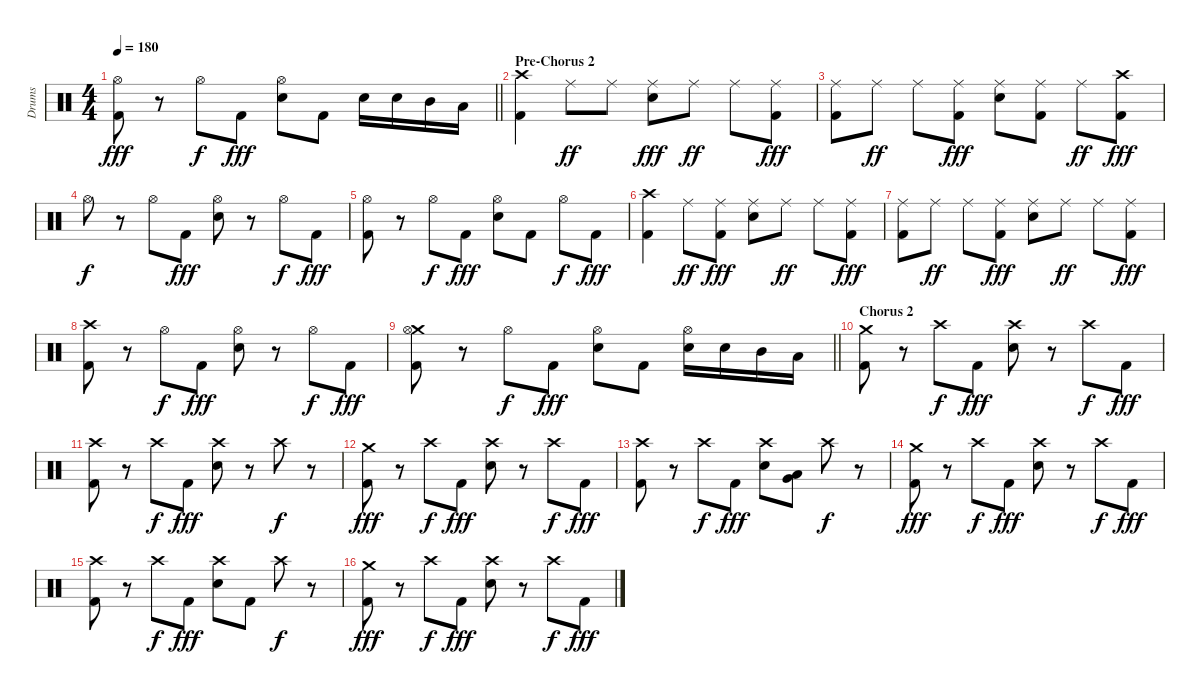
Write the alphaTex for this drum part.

\track ("Drums" "Drums") {instrument percussion}
\staff {score}
\articulation defaults
\ts (4 4)
\tempo 180
\clef neutral
\barLineRight lightlight
\ks c
("Hi-Hat (open)" "Kick (hit) 2").8{dy fff} r.8 "Hi-Hat (open)".8{dy f} "Kick (hit) 2".8{dy fff} ("Hi-Hat (open)" "Electric Snare (hit)").8 "Kick (hit) 2".8 "Electric Snare (hit)".16 "Electric Snare (hit)".16 "Mid Tom (hit)".16 "Low Tom (hit)".16 |
\section ("" "Pre-Chorus 2")
("Crash high (hit)" "Kick (hit) 2").4 "Ride (middle)".8{dy ff} "Ride (middle)".8 ("Ride (middle)" "Electric Snare (hit)").8{dy fff} "Ride (middle)".8{dy ff} "Ride (middle)".8 ("Ride (middle)" "Kick (hit) 2").8{dy fff} |
("Ride (middle)" "Kick (hit) 2").8 "Ride (middle)".8{dy ff} "Ride (middle)".8 ("Ride (middle)" "Kick (hit) 2").8{dy fff} ("Ride (middle)" "Electric Snare (hit)").8 ("Ride (middle)" "Kick (hit) 2").8 "Ride (middle)".8{dy ff} ("Crash high (hit)" "Kick (hit) 2").8{dy fff} |
"Hi-Hat (open)".8{dy f} r.8 "Hi-Hat (open)".8 "Kick (hit) 2".8{dy fff} ("Hi-Hat (open)" "Electric Snare (hit)").8 r.8 "Hi-Hat (open)".8{dy f} "Kick (hit) 2".8{dy fff} |
("Hi-Hat (open)" "Kick (hit) 2").8 r.8 "Hi-Hat (open)".8{dy f} "Kick (hit) 2".8{dy fff} ("Hi-Hat (open)" "Electric Snare (hit)").8 "Kick (hit) 2".8 "Hi-Hat (open)".8{dy f} "Kick (hit) 2".8{dy fff} |
("Crash high (hit)" "Kick (hit) 2").4 "Ride (middle)".8{dy ff} ("Ride (middle)" "Kick (hit) 2").8{dy fff} ("Ride (middle)" "Electric Snare (hit)").8 "Ride (middle)".8{dy ff} "Ride (middle)".8 ("Ride (middle)" "Kick (hit) 2").8{dy fff} |
("Ride (middle)" "Kick (hit) 2").8 "Ride (middle)".8{dy ff} "Ride (middle)".8 ("Ride (middle)" "Kick (hit) 2").8{dy fff} ("Ride (middle)" "Electric Snare (hit)").8 "Ride (middle)".8{dy ff} "Ride (middle)".8 ("Ride (middle)" "Kick (hit) 2").8{dy fff} |
("Crash high (hit)" "Kick (hit) 2").8 r.8 "Hi-Hat (open)".8{dy f} "Kick (hit) 2".8{dy fff} ("Hi-Hat (open)" "Electric Snare (hit)").8 r.8 "Hi-Hat (open)".8{dy f} "Kick (hit) 2".8{dy fff} |
\barLineRight lightlight
("Crash medium (hit)" "Hi-Hat (open)" "Kick (hit) 2").8 r.8 "Hi-Hat (open)".8{dy f} "Kick (hit) 2".8{dy fff} ("Hi-Hat (open)" "Electric Snare (hit)").8 "Kick (hit) 2".8 ("Hi-Hat (open)" "Electric Snare (hit)").16 "Electric Snare (hit)".16 "Mid Tom (hit)".16 "Low Tom (hit)".16 |
\section ("" "Chorus 2")
("Crash medium (hit)" "Kick (hit) 2").8 r.8 "Crash high (hit)".8{dy f} "Kick (hit) 2".8{dy fff} ("Crash high (hit)" "Electric Snare (hit)").8 r.8 "Crash high (hit)".8{dy f} "Kick (hit) 2".8{dy fff} |
("Crash high (hit)" "Kick (hit) 2").8 r.8 "Crash high (hit)".8{dy f} "Kick (hit) 2".8{dy fff} ("Crash high (hit)" "Electric Snare (hit)").8 r.8 "Crash high (hit)".8{dy f} r.8 |
("Crash medium (hit)" "Kick (hit) 2").8{dy fff} r.8 "Crash high (hit)".8{dy f} "Kick (hit) 2".8{dy fff} ("Crash high (hit)" "Electric Snare (hit)").8 r.8 "Crash high (hit)".8{dy f} "Kick (hit) 2".8{dy fff} |
("Crash high (hit)" "Kick (hit) 2").8 r.8 "Crash high (hit)".8{dy f} "Kick (hit) 2".8{dy fff} ("Crash high (hit)" "Electric Snare (hit)").8 ("Low Tom (hit)" "Very Low Tom (hit)").8 "Crash high (hit)".8{dy f} r.8 |
("Crash medium (hit)" "Kick (hit) 2").8{dy fff} r.8 "Crash high (hit)".8{dy f} "Kick (hit) 2".8{dy fff} ("Crash high (hit)" "Electric Snare (hit)").8 r.8 "Crash high (hit)".8{dy f} "Kick (hit) 2".8{dy fff} |
("Crash high (hit)" "Kick (hit) 2").8 r.8 "Crash high (hit)".8{dy f} "Kick (hit) 2".8{dy fff} ("Crash high (hit)" "Electric Snare (hit)").8 "Kick (hit) 2".8 "Crash high (hit)".8{dy f} r.8 |
("Crash medium (hit)" "Kick (hit) 2").8{dy fff} r.8 "Crash high (hit)".8{dy f} "Kick (hit) 2".8{dy fff} ("Crash high (hit)" "Electric Snare (hit)").8 r.8 "Crash high (hit)".8{dy f} "Kick (hit) 2".8{dy fff}
